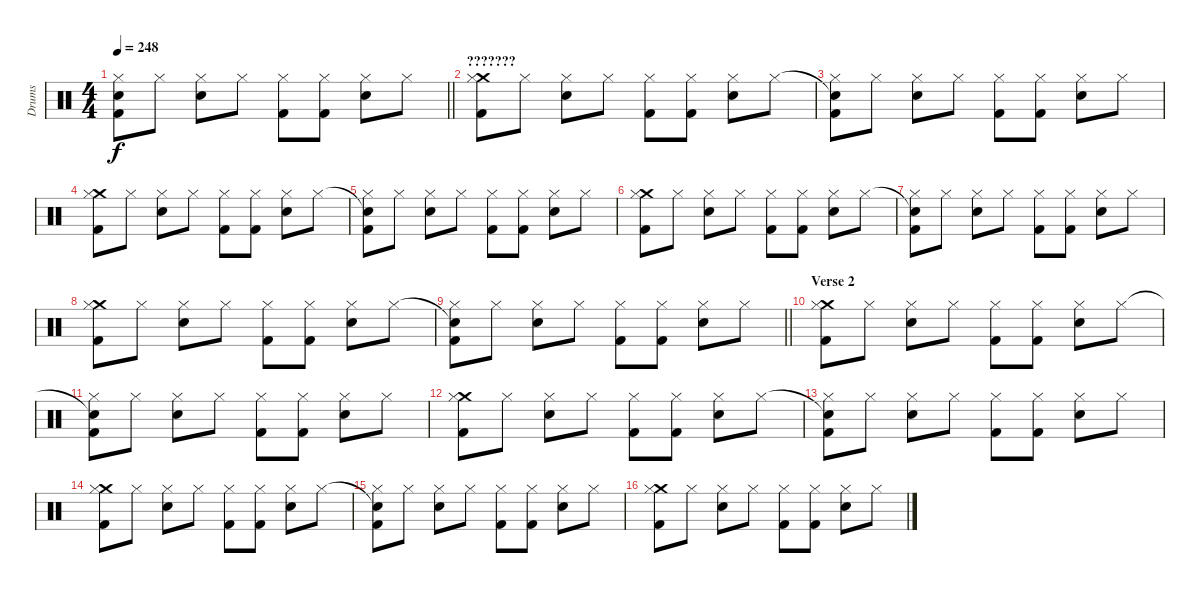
\track ("Drums" "Drums") {instrument percussion}
\staff {score}
\articulation defaults
\ts (4 4)
\tempo 248
\clef neutral
\barLineRight lightlight
\ks c
("Snare (hit)"{t} "Hi-Hat (closed)" "Kick (hit) 2").8{dy f} "Hi-Hat (closed)".8 ("Hi-Hat (closed)" "Electric Snare (hit)").8 "Hi-Hat (closed)".8 ("Hi-Hat (closed)" "Kick (hit) 2").8 ("Hi-Hat (closed)" "Kick (hit) 2").8 ("Hi-Hat (closed)" "Electric Snare (hit)").8 "Hi-Hat (closed)".8 |
\section ("" "???????")
("Crash medium (hit)" "Hi-Hat (closed)" "Kick (hit) 2").8 "Hi-Hat (closed)".8 ("Hi-Hat (closed)" "Electric Snare (hit)").8 "Hi-Hat (closed)".8 ("Hi-Hat (closed)" "Kick (hit) 2").8 ("Hi-Hat (closed)" "Kick (hit) 2").8 ("Hi-Hat (closed)" "Electric Snare (hit)").8 "Hi-Hat (closed)".8 |
("Snare (hit)"{t} "Hi-Hat (closed)" "Kick (hit) 2").8 "Hi-Hat (closed)".8 ("Hi-Hat (closed)" "Electric Snare (hit)").8 "Hi-Hat (closed)".8 ("Hi-Hat (closed)" "Kick (hit) 2").8 ("Hi-Hat (closed)" "Kick (hit) 2").8 ("Hi-Hat (closed)" "Electric Snare (hit)").8 "Hi-Hat (closed)".8 |
("Crash medium (hit)" "Hi-Hat (closed)" "Kick (hit) 2").8 "Hi-Hat (closed)".8 ("Hi-Hat (closed)" "Electric Snare (hit)").8 "Hi-Hat (closed)".8 ("Hi-Hat (closed)" "Kick (hit) 2").8 ("Hi-Hat (closed)" "Kick (hit) 2").8 ("Hi-Hat (closed)" "Electric Snare (hit)").8 "Hi-Hat (closed)".8 |
("Snare (hit)"{t} "Hi-Hat (closed)" "Kick (hit) 2").8 "Hi-Hat (closed)".8 ("Hi-Hat (closed)" "Electric Snare (hit)").8 "Hi-Hat (closed)".8 ("Hi-Hat (closed)" "Kick (hit) 2").8 ("Hi-Hat (closed)" "Kick (hit) 2").8 ("Hi-Hat (closed)" "Electric Snare (hit)").8 "Hi-Hat (closed)".8 |
("Crash medium (hit)" "Hi-Hat (closed)" "Kick (hit) 2").8 "Hi-Hat (closed)".8 ("Hi-Hat (closed)" "Electric Snare (hit)").8 "Hi-Hat (closed)".8 ("Hi-Hat (closed)" "Kick (hit) 2").8 ("Hi-Hat (closed)" "Kick (hit) 2").8 ("Hi-Hat (closed)" "Electric Snare (hit)").8 "Hi-Hat (closed)".8 |
("Snare (hit)"{t} "Hi-Hat (closed)" "Kick (hit) 2").8 "Hi-Hat (closed)".8 ("Hi-Hat (closed)" "Electric Snare (hit)").8 "Hi-Hat (closed)".8 ("Hi-Hat (closed)" "Kick (hit) 2").8 ("Hi-Hat (closed)" "Kick (hit) 2").8 ("Hi-Hat (closed)" "Electric Snare (hit)").8 "Hi-Hat (closed)".8 |
("Crash medium (hit)" "Hi-Hat (closed)" "Kick (hit) 2").8 "Hi-Hat (closed)".8 ("Hi-Hat (closed)" "Electric Snare (hit)").8 "Hi-Hat (closed)".8 ("Hi-Hat (closed)" "Kick (hit) 2").8 ("Hi-Hat (closed)" "Kick (hit) 2").8 ("Hi-Hat (closed)" "Electric Snare (hit)").8 "Hi-Hat (closed)".8 |
\barLineRight lightlight
("Snare (hit)"{t} "Hi-Hat (closed)" "Kick (hit) 2").8 "Hi-Hat (closed)".8 ("Hi-Hat (closed)" "Electric Snare (hit)").8 "Hi-Hat (closed)".8 ("Hi-Hat (closed)" "Kick (hit) 2").8 ("Hi-Hat (closed)" "Kick (hit) 2").8 ("Hi-Hat (closed)" "Electric Snare (hit)").8 "Hi-Hat (closed)".8 |
\section ("" "Verse 2")
("Crash medium (hit)" "Hi-Hat (closed)" "Kick (hit) 2").8 "Hi-Hat (closed)".8 ("Hi-Hat (closed)" "Electric Snare (hit)").8 "Hi-Hat (closed)".8 ("Hi-Hat (closed)" "Kick (hit) 2").8 ("Hi-Hat (closed)" "Kick (hit) 2").8 ("Hi-Hat (closed)" "Electric Snare (hit)").8 "Hi-Hat (closed)".8 |
("Snare (hit)"{t} "Hi-Hat (closed)" "Kick (hit) 2").8 "Hi-Hat (closed)".8 ("Hi-Hat (closed)" "Electric Snare (hit)").8 "Hi-Hat (closed)".8 ("Hi-Hat (closed)" "Kick (hit) 2").8 ("Hi-Hat (closed)" "Kick (hit) 2").8 ("Hi-Hat (closed)" "Electric Snare (hit)").8 "Hi-Hat (closed)".8 |
("Crash medium (hit)" "Hi-Hat (closed)" "Kick (hit) 2").8 "Hi-Hat (closed)".8 ("Hi-Hat (closed)" "Electric Snare (hit)").8 "Hi-Hat (closed)".8 ("Hi-Hat (closed)" "Kick (hit) 2").8 ("Hi-Hat (closed)" "Kick (hit) 2").8 ("Hi-Hat (closed)" "Electric Snare (hit)").8 "Hi-Hat (closed)".8 |
("Snare (hit)"{t} "Hi-Hat (closed)" "Kick (hit) 2").8 "Hi-Hat (closed)".8 ("Hi-Hat (closed)" "Electric Snare (hit)").8 "Hi-Hat (closed)".8 ("Hi-Hat (closed)" "Kick (hit) 2").8 ("Hi-Hat (closed)" "Kick (hit) 2").8 ("Hi-Hat (closed)" "Electric Snare (hit)").8 "Hi-Hat (closed)".8 |
("Crash medium (hit)" "Hi-Hat (closed)" "Kick (hit) 2").8 "Hi-Hat (closed)".8 ("Hi-Hat (closed)" "Electric Snare (hit)").8 "Hi-Hat (closed)".8 ("Hi-Hat (closed)" "Kick (hit) 2").8 ("Hi-Hat (closed)" "Kick (hit) 2").8 ("Hi-Hat (closed)" "Electric Snare (hit)").8 "Hi-Hat (closed)".8 |
("Snare (hit)"{t} "Hi-Hat (closed)" "Kick (hit) 2").8 "Hi-Hat (closed)".8 ("Hi-Hat (closed)" "Electric Snare (hit)").8 "Hi-Hat (closed)".8 ("Hi-Hat (closed)" "Kick (hit) 2").8 ("Hi-Hat (closed)" "Kick (hit) 2").8 ("Hi-Hat (closed)" "Electric Snare (hit)").8 "Hi-Hat (closed)".8 |
("Crash medium (hit)" "Hi-Hat (closed)" "Kick (hit) 2").8 "Hi-Hat (closed)".8 ("Hi-Hat (closed)" "Electric Snare (hit)").8 "Hi-Hat (closed)".8 ("Hi-Hat (closed)" "Kick (hit) 2").8 ("Hi-Hat (closed)" "Kick (hit) 2").8 ("Hi-Hat (closed)" "Electric Snare (hit)").8 "Hi-Hat (closed)".8
